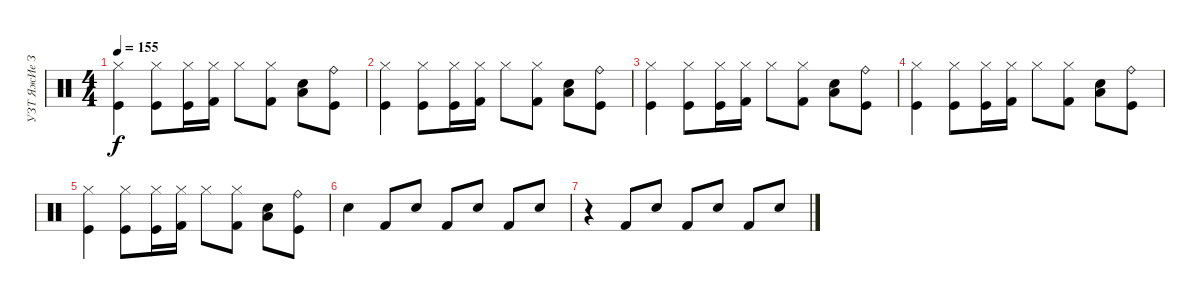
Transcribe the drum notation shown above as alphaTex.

\track ("УЗТ ЯжИе Зн" "УЗТ ЯжИе З") {instrument percussion}
\staff {score}
\articulation defaults
\ts (4 4)
\tempo 155
\clef neutral
\ks c
("Kick (hit)" "Hi-Hat (closed)").4{dy f} ("Kick (hit)" "Hi-Hat (closed)").8 ("Kick (hit)" "Hi-Hat (closed)").16 ("Kick (hit) 2" "Hi-Hat (closed)").16 "Hi-Hat (closed)".8 ("Kick (hit) 2" "Hi-Hat (closed)").8 ("Snare (hit) 2" "Low Tom (hit)").8 ("Kick (hit)" "Ride (bell)").8 |
("Kick (hit)" "Hi-Hat (closed)").4 ("Kick (hit)" "Hi-Hat (closed)").8 ("Kick (hit)" "Hi-Hat (closed)").16 ("Kick (hit) 2" "Hi-Hat (closed)").16 "Hi-Hat (closed)".8 ("Kick (hit) 2" "Hi-Hat (closed)").8 ("Snare (hit) 2" "Low Tom (hit)").8 ("Kick (hit)" "Ride (bell)").8 |
("Kick (hit)" "Hi-Hat (closed)").4 ("Kick (hit)" "Hi-Hat (closed)").8 ("Kick (hit)" "Hi-Hat (closed)").16 ("Kick (hit) 2" "Hi-Hat (closed)").16 "Hi-Hat (closed)".8 ("Kick (hit) 2" "Hi-Hat (closed)").8 ("Snare (hit) 2" "Low Tom (hit)").8 ("Kick (hit)" "Ride (bell)").8 |
("Kick (hit)" "Hi-Hat (closed)").4 ("Kick (hit)" "Hi-Hat (closed)").8 ("Kick (hit)" "Hi-Hat (closed)").16 ("Kick (hit) 2" "Hi-Hat (closed)").16 "Hi-Hat (closed)".8 ("Kick (hit) 2" "Hi-Hat (closed)").8 ("Snare (hit) 2" "Low Tom (hit)").8 ("Kick (hit)" "Ride (bell)").8 |
("Kick (hit)" "Hi-Hat (closed)").4 ("Kick (hit)" "Hi-Hat (closed)").8 ("Kick (hit)" "Hi-Hat (closed)").16 ("Kick (hit) 2" "Hi-Hat (closed)").16 "Hi-Hat (closed)".8 ("Kick (hit) 2" "Hi-Hat (closed)").8 ("Snare (hit) 2" "Low Tom (hit)").8 ("Kick (hit)" "Ride (bell)").8 |
"Snare (hit) 2".4 "Kick (hit) 2".8 "Snare (hit) 2".8 "Kick (hit) 2".8 "Snare (hit) 2".8 "Kick (hit) 2".8 "Snare (hit) 2".8 |
r.4 "Kick (hit) 2".8 "Snare (hit) 2".8 "Kick (hit) 2".8 "Snare (hit) 2".8 "Kick (hit) 2".8 "Snare (hit) 2".8
